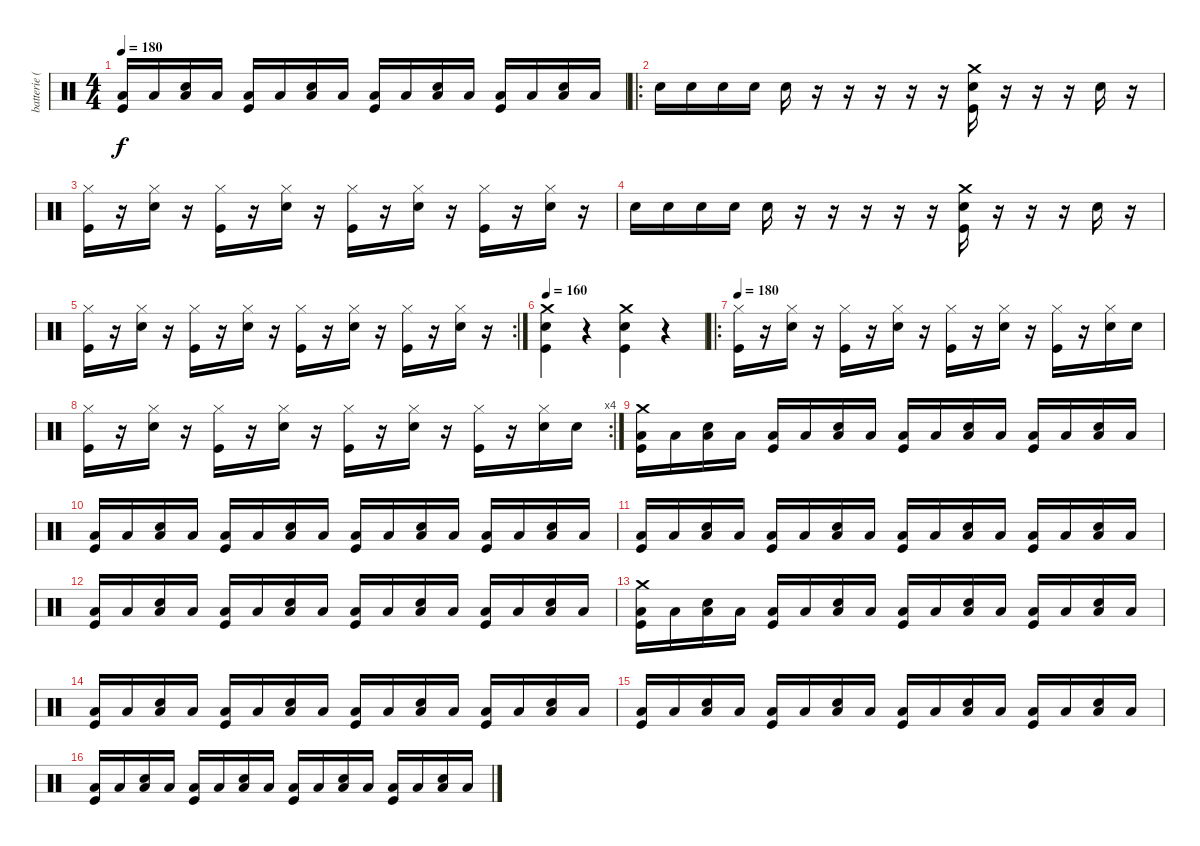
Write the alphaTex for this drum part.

\track ("batterie ( Jeff Nelson ) " "batterie (") {instrument percussion}
\staff {score}
\articulation defaults
\ts (4 4)
\tempo 180
\clef neutral
\ks c
("Low Floor Tom (hit)" "Kick (hit)").16{dy f} "Low Floor Tom (hit)".16 ("Low Floor Tom (hit)" "Snare (hit) 2").16 "Low Floor Tom (hit)".16 ("Low Floor Tom (hit)" "Kick (hit)").16 "Low Floor Tom (hit)".16 ("Low Floor Tom (hit)" "Snare (hit) 2").16 "Low Floor Tom (hit)".16 ("Low Floor Tom (hit)" "Kick (hit)").16 "Low Floor Tom (hit)".16 ("Low Floor Tom (hit)" "Snare (hit) 2").16 "Low Floor Tom (hit)".16 ("Low Floor Tom (hit)" "Kick (hit)").16 "Low Floor Tom (hit)".16 ("Low Floor Tom (hit)" "Snare (hit) 2").16 "Low Floor Tom (hit)".16 |
\ro "Snare (hit) 2".16 "Snare (hit) 2".16 "Snare (hit) 2".16 "Snare (hit) 2".16 "Snare (hit) 2".16
r.16 r.16 r.16 r.16 r.16 ("Crash medium (hit)" "Snare (hit) 2" "Kick (hit)").16 r.16 r.16 r.16 "Snare (hit) 2".16 r.16 |
("Hi-Hat (closed)" "Kick (hit)").16 r.16 ("Hi-Hat (closed)" "Snare (hit) 2").16 r.16 ("Hi-Hat (closed)" "Kick (hit)").16 r.16 ("Hi-Hat (closed)" "Snare (hit) 2").16 r.16 ("Hi-Hat (closed)" "Kick (hit)").16 r.16 ("Hi-Hat (closed)" "Snare (hit) 2").16 r.16 ("Hi-Hat (closed)" "Kick (hit)").16 r.16 ("Hi-Hat (closed)" "Snare (hit) 2").16 r.16 |
"Snare (hit) 2".16 "Snare (hit) 2".16 "Snare (hit) 2".16 "Snare (hit) 2".16 "Snare (hit) 2".16 r.16 r.16 r.16 r.16 r.16 ("Crash medium (hit)" "Snare (hit) 2" "Kick (hit)").16 r.16 r.16 r.16 "Snare (hit) 2".16 r.16 |
\rc 2
("Hi-Hat (closed)" "Kick (hit)").16 r.16 ("Hi-Hat (closed)" "Snare (hit) 2").16 r.16 ("Hi-Hat (closed)" "Kick (hit)").16 r.16 ("Hi-Hat (closed)" "Snare (hit) 2").16 r.16 ("Hi-Hat (closed)" "Kick (hit)").16 r.16 ("Hi-Hat (closed)" "Snare (hit) 2").16 r.16 ("Hi-Hat (closed)" "Kick (hit)").16 r.16 ("Hi-Hat (closed)" "Snare (hit) 2").16 r.16 |
\tempo 160
("Crash medium (hit)" "Snare (hit) 2" "Kick (hit)").4 r.4 ("Crash medium (hit)" "Snare (hit) 2" "Kick (hit)").4 r.4 |
\ro
\tempo 180
("Hi-Hat (closed)" "Kick (hit)").16 r.16 ("Hi-Hat (closed)" "Snare (hit) 2").16 r.16 ("Hi-Hat (closed)" "Kick (hit)").16 r.16 ("Hi-Hat (closed)" "Snare (hit) 2").16 r.16 ("Hi-Hat (closed)" "Kick (hit)").16 r.16 ("Hi-Hat (closed)" "Snare (hit) 2").16 r.16 ("Hi-Hat (closed)" "Kick (hit)").16 r.16 ("Hi-Hat (closed)" "Snare (hit) 2").16 "Snare (hit) 2".16 |
\rc 4
("Hi-Hat (closed)" "Kick (hit)").16 r.16 ("Hi-Hat (closed)" "Snare (hit) 2").16 r.16 ("Hi-Hat (closed)" "Kick (hit)").16 r.16 ("Hi-Hat (closed)" "Snare (hit) 2").16 r.16 ("Hi-Hat (closed)" "Kick (hit)").16 r.16 ("Hi-Hat (closed)" "Snare (hit) 2").16 r.16 ("Hi-Hat (closed)" "Kick (hit)").16 r.16 ("Hi-Hat (closed)" "Snare (hit) 2").16 "Snare (hit) 2".16 |
("Crash medium (hit)" "Low Floor Tom (hit)" "Kick (hit)").16 "Low Floor Tom (hit)".16 ("Low Floor Tom (hit)" "Snare (hit) 2").16 "Low Floor Tom (hit)".16 ("Low Floor Tom (hit)" "Kick (hit)").16 "Low Floor Tom (hit)".16 ("Low Floor Tom (hit)" "Snare (hit) 2").16 "Low Floor Tom (hit)".16 ("Low Floor Tom (hit)" "Kick (hit)").16 "Low Floor Tom (hit)".16 ("Low Floor Tom (hit)" "Snare (hit) 2").16 "Low Floor Tom (hit)".16 ("Low Floor Tom (hit)" "Kick (hit)").16 "Low Floor Tom (hit)".16 ("Low Floor Tom (hit)" "Snare (hit) 2").16 "Low Floor Tom (hit)".16 |
("Low Floor Tom (hit)" "Kick (hit)").16 "Low Floor Tom (hit)".16 ("Low Floor Tom (hit)" "Snare (hit) 2").16 "Low Floor Tom (hit)".16 ("Low Floor Tom (hit)" "Kick (hit)").16 "Low Floor Tom (hit)".16 ("Low Floor Tom (hit)" "Snare (hit) 2").16 "Low Floor Tom (hit)".16 ("Low Floor Tom (hit)" "Kick (hit)").16 "Low Floor Tom (hit)".16 ("Low Floor Tom (hit)" "Snare (hit) 2").16 "Low Floor Tom (hit)".16 ("Low Floor Tom (hit)" "Kick (hit)").16 "Low Floor Tom (hit)".16 ("Low Floor Tom (hit)" "Snare (hit) 2").16 "Low Floor Tom (hit)".16 |
("Low Floor Tom (hit)" "Kick (hit)").16 "Low Floor Tom (hit)".16 ("Low Floor Tom (hit)" "Snare (hit) 2").16 "Low Floor Tom (hit)".16 ("Low Floor Tom (hit)" "Kick (hit)").16 "Low Floor Tom (hit)".16 ("Low Floor Tom (hit)" "Snare (hit) 2").16 "Low Floor Tom (hit)".16 ("Low Floor Tom (hit)" "Kick (hit)").16 "Low Floor Tom (hit)".16 ("Low Floor Tom (hit)" "Snare (hit) 2").16 "Low Floor Tom (hit)".16 ("Low Floor Tom (hit)" "Kick (hit)").16 "Low Floor Tom (hit)".16 ("Low Floor Tom (hit)" "Snare (hit) 2").16 "Low Floor Tom (hit)".16 |
("Low Floor Tom (hit)" "Kick (hit)").16 "Low Floor Tom (hit)".16 ("Low Floor Tom (hit)" "Snare (hit) 2").16 "Low Floor Tom (hit)".16 ("Low Floor Tom (hit)" "Kick (hit)").16 "Low Floor Tom (hit)".16 ("Low Floor Tom (hit)" "Snare (hit) 2").16 "Low Floor Tom (hit)".16 ("Low Floor Tom (hit)" "Kick (hit)").16 "Low Floor Tom (hit)".16 ("Low Floor Tom (hit)" "Snare (hit) 2").16 "Low Floor Tom (hit)".16 ("Low Floor Tom (hit)" "Kick (hit)").16 "Low Floor Tom (hit)".16 ("Low Floor Tom (hit)" "Snare (hit) 2").16 "Low Floor Tom (hit)".16 |
("Crash medium (hit)" "Low Floor Tom (hit)" "Kick (hit)").16 "Low Floor Tom (hit)".16 ("Low Floor Tom (hit)" "Snare (hit) 2").16 "Low Floor Tom (hit)".16 ("Low Floor Tom (hit)" "Kick (hit)").16 "Low Floor Tom (hit)".16 ("Low Floor Tom (hit)" "Snare (hit) 2").16 "Low Floor Tom (hit)".16 ("Low Floor Tom (hit)" "Kick (hit)").16 "Low Floor Tom (hit)".16 ("Low Floor Tom (hit)" "Snare (hit) 2").16 "Low Floor Tom (hit)".16 ("Low Floor Tom (hit)" "Kick (hit)").16 "Low Floor Tom (hit)".16 ("Low Floor Tom (hit)" "Snare (hit) 2").16 "Low Floor Tom (hit)".16 |
("Low Floor Tom (hit)" "Kick (hit)").16 "Low Floor Tom (hit)".16 ("Low Floor Tom (hit)" "Snare (hit) 2").16 "Low Floor Tom (hit)".16 ("Low Floor Tom (hit)" "Kick (hit)").16 "Low Floor Tom (hit)".16 ("Low Floor Tom (hit)" "Snare (hit) 2").16 "Low Floor Tom (hit)".16 ("Low Floor Tom (hit)" "Kick (hit)").16 "Low Floor Tom (hit)".16 ("Low Floor Tom (hit)" "Snare (hit) 2").16 "Low Floor Tom (hit)".16 ("Low Floor Tom (hit)" "Kick (hit)").16 "Low Floor Tom (hit)".16 ("Low Floor Tom (hit)" "Snare (hit) 2").16 "Low Floor Tom (hit)".16 |
("Low Floor Tom (hit)" "Kick (hit)").16 "Low Floor Tom (hit)".16 ("Low Floor Tom (hit)" "Snare (hit) 2").16 "Low Floor Tom (hit)".16 ("Low Floor Tom (hit)" "Kick (hit)").16 "Low Floor Tom (hit)".16 ("Low Floor Tom (hit)" "Snare (hit) 2").16 "Low Floor Tom (hit)".16 ("Low Floor Tom (hit)" "Kick (hit)").16 "Low Floor Tom (hit)".16 ("Low Floor Tom (hit)" "Snare (hit) 2").16 "Low Floor Tom (hit)".16 ("Low Floor Tom (hit)" "Kick (hit)").16 "Low Floor Tom (hit)".16 ("Low Floor Tom (hit)" "Snare (hit) 2").16 "Low Floor Tom (hit)".16 |
("Low Floor Tom (hit)" "Kick (hit)").16 "Low Floor Tom (hit)".16 ("Low Floor Tom (hit)" "Snare (hit) 2").16 "Low Floor Tom (hit)".16 ("Low Floor Tom (hit)" "Kick (hit)").16 "Low Floor Tom (hit)".16 ("Low Floor Tom (hit)" "Snare (hit) 2").16 "Low Floor Tom (hit)".16 ("Low Floor Tom (hit)" "Kick (hit)").16 "Low Floor Tom (hit)".16 ("Low Floor Tom (hit)" "Snare (hit) 2").16 "Low Floor Tom (hit)".16 ("Low Floor Tom (hit)" "Kick (hit)").16 "Low Floor Tom (hit)".16 ("Low Floor Tom (hit)" "Snare (hit) 2").16 "Low Floor Tom (hit)".16
